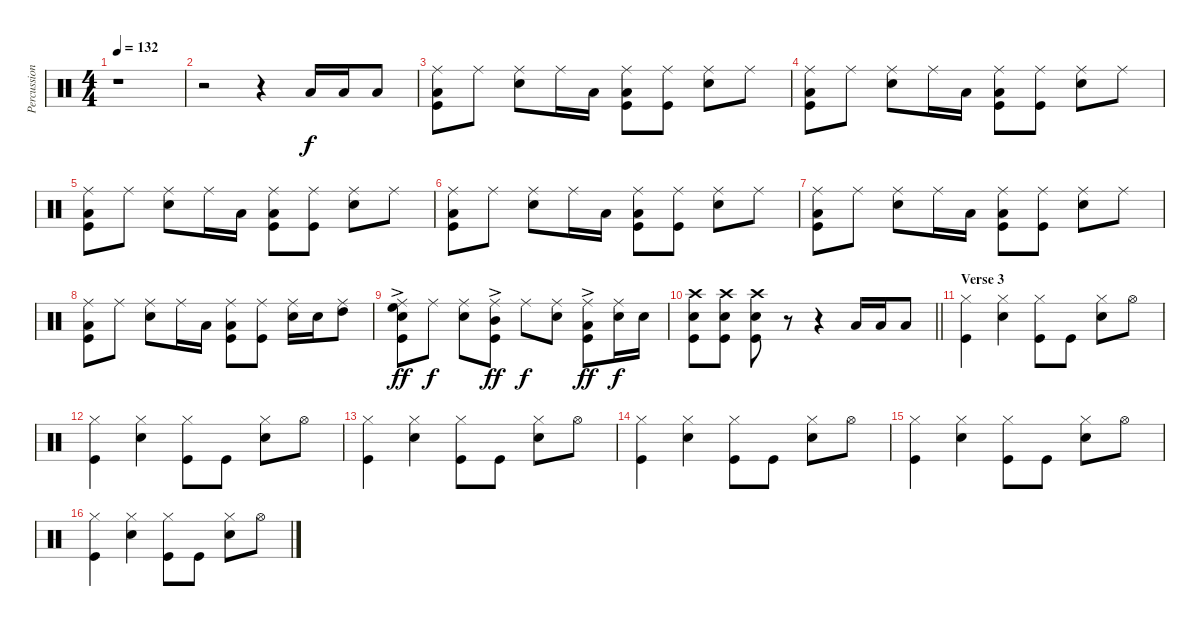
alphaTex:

\track ("Percussion" "Percussion") {instrument percussion}
\staff {score}
\articulation defaults
\ts (4 4)
\tempo 132
\clef neutral
\ks c
r.1{dy f} |
r.2 r.4 "Low Tom (hit)".16 "Low Tom (hit)".16 "Low Tom (hit)".8 |
("Ride (middle)" "Low Tom (hit)" "Kick (hit)").8 "Ride (middle)".8 ("Ride (middle)" "Snare (hit) 2").8 "Ride (middle)".16 "Low Tom (hit)".16 ("Ride (middle)" "Low Tom (hit)" "Kick (hit)").8 ("Ride (middle)" "Kick (hit)").8 ("Ride (middle)" "Snare (hit) 2").8 "Ride (middle)".8 |
("Ride (middle)" "Low Tom (hit)" "Kick (hit)").8 "Ride (middle)".8 ("Ride (middle)" "Snare (hit) 2").8 "Ride (middle)".16 "Low Tom (hit)".16 ("Ride (middle)" "Low Tom (hit)" "Kick (hit)").8 ("Ride (middle)" "Kick (hit)").8 ("Ride (middle)" "Snare (hit) 2").8 "Ride (middle)".8 |
("Ride (middle)" "Low Tom (hit)" "Kick (hit)").8 "Ride (middle)".8 ("Ride (middle)" "Snare (hit) 2").8 "Ride (middle)".16 "Low Tom (hit)".16 ("Ride (middle)" "Low Tom (hit)" "Kick (hit)").8 ("Ride (middle)" "Kick (hit)").8 ("Ride (middle)" "Snare (hit) 2").8 "Ride (middle)".8 |
("Ride (middle)" "Low Tom (hit)" "Kick (hit)").8 "Ride (middle)".8 ("Ride (middle)" "Snare (hit) 2").8 "Ride (middle)".16 "Low Tom (hit)".16 ("Ride (middle)" "Low Tom (hit)" "Kick (hit)").8 ("Ride (middle)" "Kick (hit)").8 ("Ride (middle)" "Snare (hit) 2").8 "Ride (middle)".8 |
("Ride (middle)" "Low Tom (hit)" "Kick (hit)").8 "Ride (middle)".8 ("Ride (middle)" "Snare (hit) 2").8 "Ride (middle)".16 "Low Tom (hit)".16 ("Ride (middle)" "Low Tom (hit)" "Kick (hit)").8 ("Ride (middle)" "Kick (hit)").8 ("Ride (middle)" "Snare (hit) 2").8 "Ride (middle)".8 |
("Ride (middle)" "Low Tom (hit)" "Kick (hit)").8 "Ride (middle)".8 ("Ride (middle)" "Snare (hit) 2").8 "Ride (middle)".16 "Low Tom (hit)".16 ("Ride (middle)" "Low Tom (hit)" "Kick (hit)").8 ("Ride (middle)" "Kick (hit)").8 ("Ride (middle)" "Snare (hit) 2").16 "Snare (hit) 2".16 ("Ride (middle)" "High Tom (hit)").8 |
("Ride (middle)"{ac} "High Floor Tom (hit)" "Snare (hit) 2" "Kick (hit)").8{dy ff} "Ride (middle)".8{dy f} ("Ride (middle)" "Snare (hit) 2").8 ("Ride (middle)"{ac} "Mid Tom (hit)" "Kick (hit)").8{dy ff} "Ride (middle)".8{dy f} ("Ride (middle)" "Snare (hit) 2").8 ("Ride (middle)"{ac} "Low Floor Tom (hit)" "Kick (hit)").8{dy ff} ("Ride (middle)" "Snare (hit) 2").16{dy f} "Snare (hit) 2".16 |
\barLineRight lightlight
("Crash high (hit)" "Snare (hit) 2" "Kick (hit)").8 ("Crash high (hit)" "Snare (hit) 2" "Kick (hit)").8 ("Crash high (hit)" "Snare (hit) 2" "Kick (hit)").8 r.8 r.4 "Low Tom (hit)".16 "Low Tom (hit)".16 "Low Tom (hit)".8 |
\section ("" "Verse 3")
("Hi-Hat (closed)" "Kick (hit)").4 ("Hi-Hat (closed)" "Snare (hit) 2").4 ("Hi-Hat (closed)" "Kick (hit)").8 "Kick (hit)".8 ("Hi-Hat (closed)" "Snare (hit) 2").8 "Hi-Hat (open)".8 |
("Hi-Hat (closed)" "Kick (hit)").4 ("Hi-Hat (closed)" "Snare (hit) 2").4 ("Hi-Hat (closed)" "Kick (hit)").8 "Kick (hit)".8 ("Hi-Hat (closed)" "Snare (hit) 2").8 "Hi-Hat (open)".8 |
("Hi-Hat (closed)" "Kick (hit)").4 ("Hi-Hat (closed)" "Snare (hit) 2").4 ("Hi-Hat (closed)" "Kick (hit)").8 "Kick (hit)".8 ("Hi-Hat (closed)" "Snare (hit) 2").8 "Hi-Hat (open)".8 |
("Hi-Hat (closed)" "Kick (hit)").4 ("Hi-Hat (closed)" "Snare (hit) 2").4 ("Hi-Hat (closed)" "Kick (hit)").8 "Kick (hit)".8 ("Hi-Hat (closed)" "Snare (hit) 2").8 "Hi-Hat (open)".8 |
("Hi-Hat (closed)" "Kick (hit)").4 ("Hi-Hat (closed)" "Snare (hit) 2").4 ("Hi-Hat (closed)" "Kick (hit)").8 "Kick (hit)".8 ("Hi-Hat (closed)" "Snare (hit) 2").8 "Hi-Hat (open)".8 |
("Hi-Hat (closed)" "Kick (hit)").4 ("Hi-Hat (closed)" "Snare (hit) 2").4 ("Hi-Hat (closed)" "Kick (hit)").8 "Kick (hit)".8 ("Hi-Hat (closed)" "Snare (hit) 2").8 "Hi-Hat (open)".8
